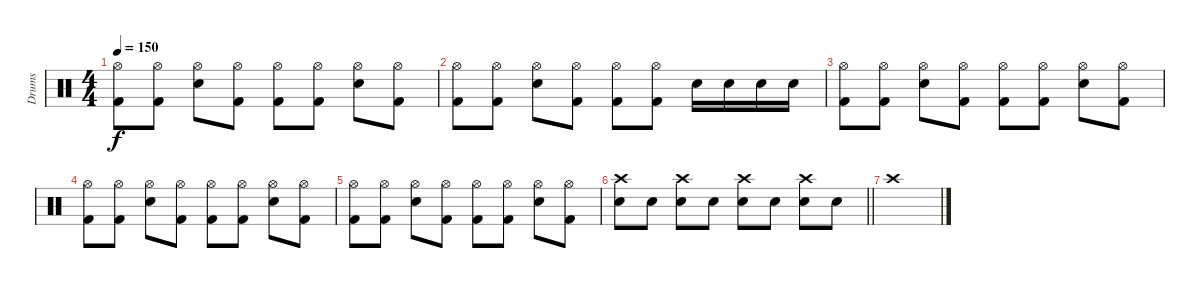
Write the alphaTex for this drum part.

\track ("Drums" "Drums") {instrument percussion}
\staff {score}
\articulation defaults
\ts (4 4)
\tempo 150
\clef neutral
\ks c
("Hi-Hat (open)" "Kick (hit) 2").8{dy f} ("Hi-Hat (open)" "Kick (hit) 2").8 ("Snare (hit) 2" "Hi-Hat (open)").8 ("Hi-Hat (open)" "Kick (hit) 2").8 ("Hi-Hat (open)" "Kick (hit) 2").8 ("Hi-Hat (open)" "Kick (hit) 2").8 ("Snare (hit) 2" "Hi-Hat (open)").8 ("Hi-Hat (open)" "Kick (hit) 2").8 |
("Hi-Hat (open)" "Kick (hit) 2").8 ("Hi-Hat (open)" "Kick (hit) 2").8 ("Snare (hit) 2" "Hi-Hat (open)").8 ("Hi-Hat (open)" "Kick (hit) 2").8 ("Hi-Hat (open)" "Kick (hit) 2").8 ("Hi-Hat (open)" "Kick (hit) 2").8 "Snare (hit) 2".16 "Snare (hit) 2".16 "Snare (hit) 2".16 "Snare (hit) 2".16 |
("Hi-Hat (open)" "Kick (hit) 2").8 ("Hi-Hat (open)" "Kick (hit) 2").8 ("Snare (hit) 2" "Hi-Hat (open)").8 ("Hi-Hat (open)" "Kick (hit) 2").8 ("Hi-Hat (open)" "Kick (hit) 2").8 ("Hi-Hat (open)" "Kick (hit) 2").8 ("Snare (hit) 2" "Hi-Hat (open)").8 ("Hi-Hat (open)" "Kick (hit) 2").8 |
("Hi-Hat (open)" "Kick (hit) 2").8 ("Hi-Hat (open)" "Kick (hit) 2").8 ("Snare (hit) 2" "Hi-Hat (open)").8 ("Hi-Hat (open)" "Kick (hit) 2").8 ("Hi-Hat (open)" "Kick (hit) 2").8 ("Hi-Hat (open)" "Kick (hit) 2").8 ("Snare (hit) 2" "Hi-Hat (open)").8 ("Hi-Hat (open)" "Kick (hit) 2").8 |
("Hi-Hat (open)" "Kick (hit) 2").8 ("Hi-Hat (open)" "Kick (hit) 2").8 ("Snare (hit) 2" "Hi-Hat (open)").8 ("Hi-Hat (open)" "Kick (hit) 2").8 ("Hi-Hat (open)" "Kick (hit) 2").8 ("Hi-Hat (open)" "Kick (hit) 2").8 ("Snare (hit) 2" "Hi-Hat (open)").8 ("Hi-Hat (open)" "Kick (hit) 2").8 |
\barLineRight lightlight
("Snare (hit) 2" "Crash high (hit)").8 "Snare (hit) 2".8 ("Snare (hit) 2" "Crash high (hit)").8 "Snare (hit) 2".8 ("Snare (hit) 2" "Crash high (hit)").8 "Snare (hit) 2".8 ("Snare (hit) 2" "Crash high (hit)").8 "Snare (hit) 2".8 |
"Crash high (hit)".1
